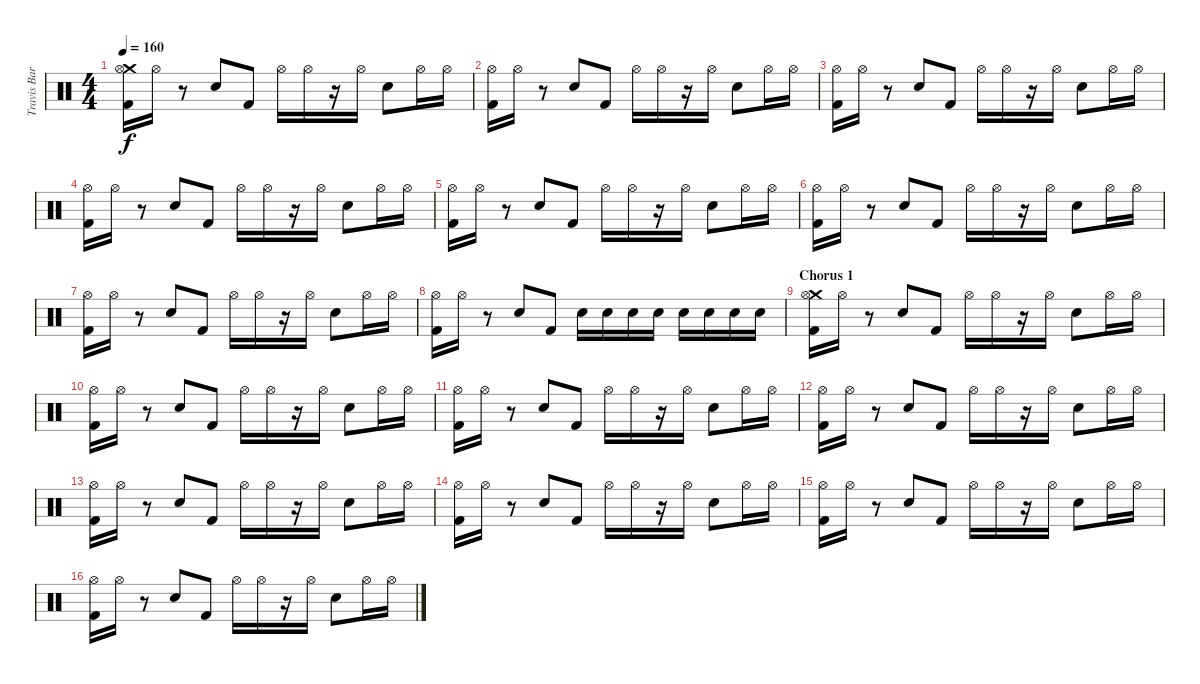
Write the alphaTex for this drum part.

\track ("Travis Barker Drums" "Travis Bar") {instrument percussion}
\staff {score}
\articulation defaults
\ts (4 4)
\tempo 160
\clef neutral
\ks c
("Crash medium (hit)" "Hi-Hat (open)" "Kick (hit) 2").16{dy f} "Hi-Hat (open)".16 r.8 "Electric Snare (hit)".8 "Kick (hit) 2".8 "Hi-Hat (open)".16 "Hi-Hat (open)".16 r.16 "Hi-Hat (open)".16 "Electric Snare (hit)".8 "Hi-Hat (open)".16 "Hi-Hat (open)".16 |
("Hi-Hat (open)" "Kick (hit) 2").16 "Hi-Hat (open)".16 r.8 "Electric Snare (hit)".8 "Kick (hit) 2".8 "Hi-Hat (open)".16 "Hi-Hat (open)".16 r.16 "Hi-Hat (open)".16 "Electric Snare (hit)".8 "Hi-Hat (open)".16 "Hi-Hat (open)".16 |
("Hi-Hat (open)" "Kick (hit) 2").16 "Hi-Hat (open)".16 r.8 "Electric Snare (hit)".8 "Kick (hit) 2".8 "Hi-Hat (open)".16 "Hi-Hat (open)".16 r.16 "Hi-Hat (open)".16 "Electric Snare (hit)".8 "Hi-Hat (open)".16 "Hi-Hat (open)".16 |
("Hi-Hat (open)" "Kick (hit) 2").16 "Hi-Hat (open)".16 r.8 "Electric Snare (hit)".8 "Kick (hit) 2".8 "Hi-Hat (open)".16 "Hi-Hat (open)".16 r.16 "Hi-Hat (open)".16 "Electric Snare (hit)".8 "Hi-Hat (open)".16 "Hi-Hat (open)".16 |
("Hi-Hat (open)" "Kick (hit) 2").16 "Hi-Hat (open)".16 r.8 "Electric Snare (hit)".8 "Kick (hit) 2".8 "Hi-Hat (open)".16 "Hi-Hat (open)".16 r.16 "Hi-Hat (open)".16 "Electric Snare (hit)".8 "Hi-Hat (open)".16 "Hi-Hat (open)".16 |
("Hi-Hat (open)" "Kick (hit) 2").16 "Hi-Hat (open)".16 r.8 "Electric Snare (hit)".8 "Kick (hit) 2".8 "Hi-Hat (open)".16 "Hi-Hat (open)".16 r.16 "Hi-Hat (open)".16 "Electric Snare (hit)".8 "Hi-Hat (open)".16 "Hi-Hat (open)".16 |
("Hi-Hat (open)" "Kick (hit) 2").16 "Hi-Hat (open)".16 r.8 "Electric Snare (hit)".8 "Kick (hit) 2".8 "Hi-Hat (open)".16 "Hi-Hat (open)".16 r.16 "Hi-Hat (open)".16 "Electric Snare (hit)".8 "Hi-Hat (open)".16 "Hi-Hat (open)".16 |
("Hi-Hat (open)" "Kick (hit) 2").16 "Hi-Hat (open)".16 r.8 "Electric Snare (hit)".8 "Kick (hit) 2".8 "Electric Snare (hit)".16 "Electric Snare (hit)".16 "Electric Snare (hit)".16 "Electric Snare (hit)".16 "Electric Snare (hit)".16 "Electric Snare (hit)".16 "Electric Snare (hit)".16 "Electric Snare (hit)".16 |
\section ("" "Chorus 1")
("Crash medium (hit)" "Hi-Hat (open)" "Kick (hit) 2").16 "Hi-Hat (open)".16 r.8 "Electric Snare (hit)".8 "Kick (hit) 2".8 "Hi-Hat (open)".16 "Hi-Hat (open)".16 r.16 "Hi-Hat (open)".16 "Electric Snare (hit)".8 "Hi-Hat (open)".16 "Hi-Hat (open)".16 |
("Hi-Hat (open)" "Kick (hit) 2").16 "Hi-Hat (open)".16 r.8 "Electric Snare (hit)".8 "Kick (hit) 2".8 "Hi-Hat (open)".16 "Hi-Hat (open)".16 r.16 "Hi-Hat (open)".16 "Electric Snare (hit)".8 "Hi-Hat (open)".16 "Hi-Hat (open)".16 |
("Hi-Hat (open)" "Kick (hit) 2").16 "Hi-Hat (open)".16 r.8 "Electric Snare (hit)".8 "Kick (hit) 2".8 "Hi-Hat (open)".16 "Hi-Hat (open)".16 r.16 "Hi-Hat (open)".16 "Electric Snare (hit)".8 "Hi-Hat (open)".16 "Hi-Hat (open)".16 |
("Hi-Hat (open)" "Kick (hit) 2").16 "Hi-Hat (open)".16 r.8 "Electric Snare (hit)".8 "Kick (hit) 2".8 "Hi-Hat (open)".16 "Hi-Hat (open)".16 r.16 "Hi-Hat (open)".16 "Electric Snare (hit)".8 "Hi-Hat (open)".16 "Hi-Hat (open)".16 |
("Hi-Hat (open)" "Kick (hit) 2").16 "Hi-Hat (open)".16 r.8 "Electric Snare (hit)".8 "Kick (hit) 2".8 "Hi-Hat (open)".16 "Hi-Hat (open)".16 r.16 "Hi-Hat (open)".16 "Electric Snare (hit)".8 "Hi-Hat (open)".16 "Hi-Hat (open)".16 |
("Hi-Hat (open)" "Kick (hit) 2").16 "Hi-Hat (open)".16 r.8 "Electric Snare (hit)".8 "Kick (hit) 2".8 "Hi-Hat (open)".16 "Hi-Hat (open)".16 r.16 "Hi-Hat (open)".16 "Electric Snare (hit)".8 "Hi-Hat (open)".16 "Hi-Hat (open)".16 |
("Hi-Hat (open)" "Kick (hit) 2").16 "Hi-Hat (open)".16 r.8 "Electric Snare (hit)".8 "Kick (hit) 2".8 "Hi-Hat (open)".16 "Hi-Hat (open)".16 r.16 "Hi-Hat (open)".16 "Electric Snare (hit)".8 "Hi-Hat (open)".16 "Hi-Hat (open)".16 |
("Hi-Hat (open)" "Kick (hit) 2").16 "Hi-Hat (open)".16 r.8 "Electric Snare (hit)".8 "Kick (hit) 2".8 "Hi-Hat (open)".16 "Hi-Hat (open)".16 r.16 "Hi-Hat (open)".16 "Electric Snare (hit)".8 "Hi-Hat (open)".16 "Hi-Hat (open)".16
